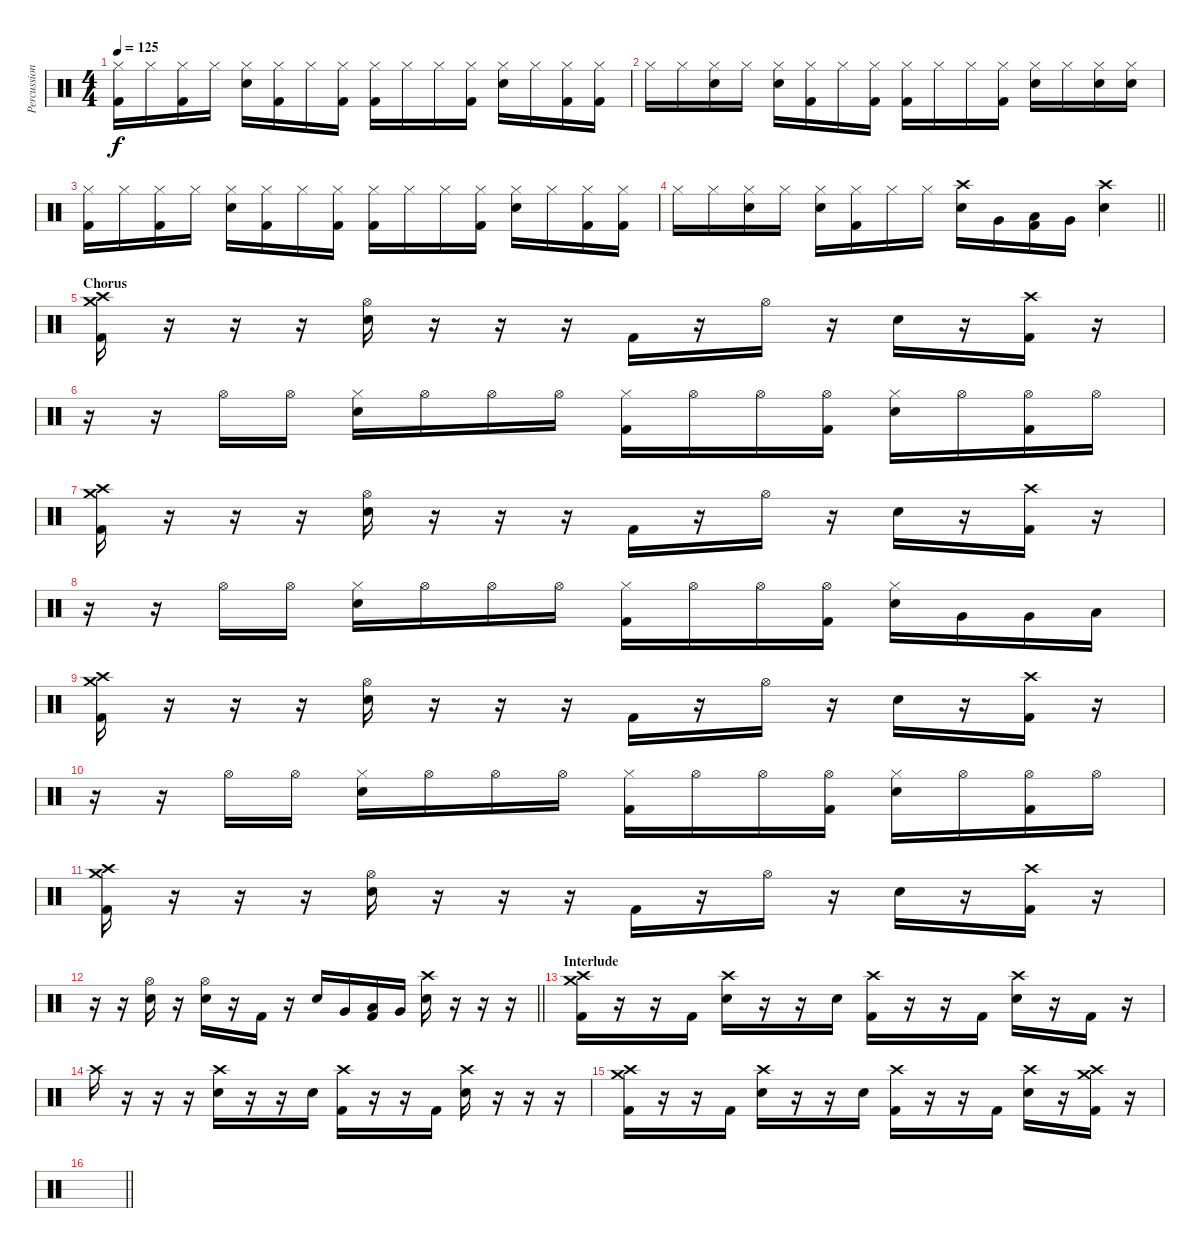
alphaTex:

\track ("Percussion" "Percussion") {instrument percussion}
\staff {score}
\articulation defaults
\ts (4 4)
\tempo 125
\clef neutral
\ks c
("Hi-Hat (closed)" "Kick (hit) 2").16{dy f} "Hi-Hat (closed)".16 ("Hi-Hat (closed)" "Kick (hit) 2").16 "Hi-Hat (closed)".16 ("Hi-Hat (closed)" "Electric Snare (hit)").16 ("Hi-Hat (closed)" "Kick (hit) 2").16 "Hi-Hat (closed)".16 ("Hi-Hat (closed)" "Kick (hit) 2").16 ("Hi-Hat (closed)" "Kick (hit) 2").16 "Hi-Hat (closed)".16 "Hi-Hat (closed)".16 ("Hi-Hat (closed)" "Kick (hit) 2").16 ("Hi-Hat (closed)" "Electric Snare (hit)").16 "Hi-Hat (closed)".16 ("Hi-Hat (closed)" "Kick (hit) 2").16 ("Hi-Hat (closed)" "Kick (hit) 2").16 |
"Hi-Hat (closed)".16 "Hi-Hat (closed)".16 ("Hi-Hat (closed)" "Electric Snare (hit)").16 "Hi-Hat (closed)".16 ("Hi-Hat (closed)" "Electric Snare (hit)").16 ("Hi-Hat (closed)" "Kick (hit) 2").16 "Hi-Hat (closed)".16 ("Hi-Hat (closed)" "Kick (hit) 2").16 ("Hi-Hat (closed)" "Kick (hit) 2").16 "Hi-Hat (closed)".16 "Hi-Hat (closed)".16 ("Hi-Hat (closed)" "Kick (hit) 2").16 ("Hi-Hat (closed)" "Electric Snare (hit)").16 "Hi-Hat (closed)".16 ("Hi-Hat (closed)" "Electric Snare (hit)").16 ("Hi-Hat (closed)" "Electric Snare (hit)").16 |
("Hi-Hat (closed)" "Kick (hit) 2").16 "Hi-Hat (closed)".16 ("Hi-Hat (closed)" "Kick (hit) 2").16 "Hi-Hat (closed)".16 ("Hi-Hat (closed)" "Electric Snare (hit)").16 ("Hi-Hat (closed)" "Kick (hit) 2").16 "Hi-Hat (closed)".16 ("Hi-Hat (closed)" "Kick (hit) 2").16 ("Hi-Hat (closed)" "Kick (hit) 2").16 "Hi-Hat (closed)".16 "Hi-Hat (closed)".16 ("Hi-Hat (closed)" "Kick (hit) 2").16 ("Hi-Hat (closed)" "Electric Snare (hit)").16 "Hi-Hat (closed)".16 ("Hi-Hat (closed)" "Kick (hit) 2").16 ("Hi-Hat (closed)" "Kick (hit) 2").16 |
\barLineRight lightlight "Hi-Hat (closed)".16 "Hi-Hat (closed)".16
("Hi-Hat (closed)" "Electric Snare (hit)").16 "Hi-Hat (closed)".16 ("Hi-Hat (closed)" "Electric Snare (hit)").16 ("Hi-Hat (closed)" "Kick (hit) 2").16 "Hi-Hat (closed)".16 "Hi-Hat (closed)".16 ("Crash high (hit)" "Electric Snare (hit)").16 "Very Low Tom (hit)".16 ("Low Floor Tom (hit)" "Kick (hit) 2").16 "Very Low Tom (hit)".16 ("Crash high (hit)" "Electric Snare (hit)").4 |
\section ("" "Chorus")
("Crash medium (hit)" "Crash high (hit)" "Kick (hit) 2").16 r.16 r.16 r.16 ("Hi-Hat (open)" "Electric Snare (hit)").16 r.16 r.16 r.16 "Kick (hit) 2".16 r.16 "Hi-Hat (open)".16 r.16 "Electric Snare (hit)".16 r.16 ("Crash high (hit)" "Kick (hit) 2").16 r.16 |
r.16 r.16 "Hi-Hat (open)".16 "Hi-Hat (open)".16 ("Hi-Hat (closed)" "Electric Snare (hit)").16 "Hi-Hat (open)".16 "Hi-Hat (open)".16 "Hi-Hat (open)".16 ("Hi-Hat (closed)" "Kick (hit) 2").16 "Hi-Hat (open)".16 "Hi-Hat (open)".16 ("Hi-Hat (open)" "Kick (hit) 2").16 ("Hi-Hat (closed)" "Electric Snare (hit)").16 "Hi-Hat (open)".16 ("Hi-Hat (open)" "Kick (hit) 2").16 "Hi-Hat (open)".16 |
("Crash medium (hit)" "Crash high (hit)" "Kick (hit) 2").16 r.16 r.16 r.16 ("Hi-Hat (open)" "Electric Snare (hit)").16 r.16 r.16 r.16 "Kick (hit) 2".16 r.16 "Hi-Hat (open)".16 r.16 "Electric Snare (hit)".16 r.16 ("Crash high (hit)" "Kick (hit) 2").16 r.16 |
r.16 r.16 "Hi-Hat (open)".16 "Hi-Hat (open)".16 ("Hi-Hat (closed)" "Electric Snare (hit)").16 "Hi-Hat (open)".16 "Hi-Hat (open)".16 "Hi-Hat (open)".16 ("Hi-Hat (closed)" "Kick (hit) 2").16 "Hi-Hat (open)".16 "Hi-Hat (open)".16 ("Hi-Hat (open)" "Kick (hit) 2").16 ("Hi-Hat (closed)" "Electric Snare (hit)").16 "Very Low Tom (hit)".16 "Very Low Tom (hit)".16 "Low Floor Tom (hit)".16 |
("Crash medium (hit)" "Crash high (hit)" "Kick (hit) 2").16 r.16 r.16 r.16 ("Hi-Hat (open)" "Electric Snare (hit)").16 r.16 r.16 r.16 "Kick (hit) 2".16 r.16 "Hi-Hat (open)".16 r.16 "Electric Snare (hit)".16 r.16 ("Crash high (hit)" "Kick (hit) 2").16 r.16 |
r.16 r.16 "Hi-Hat (open)".16 "Hi-Hat (open)".16 ("Hi-Hat (closed)" "Electric Snare (hit)").16 "Hi-Hat (open)".16 "Hi-Hat (open)".16 "Hi-Hat (open)".16 ("Hi-Hat (closed)" "Kick (hit) 2").16 "Hi-Hat (open)".16 "Hi-Hat (open)".16 ("Hi-Hat (open)" "Kick (hit) 2").16 ("Hi-Hat (closed)" "Electric Snare (hit)").16 "Hi-Hat (open)".16 ("Hi-Hat (open)" "Kick (hit) 2").16 "Hi-Hat (open)".16 |
("Crash medium (hit)" "Crash high (hit)" "Kick (hit) 2").16 r.16 r.16 r.16 ("Hi-Hat (open)" "Electric Snare (hit)").16 r.16 r.16 r.16 "Kick (hit) 2".16 r.16 "Hi-Hat (open)".16 r.16 "Electric Snare (hit)".16 r.16 ("Crash high (hit)" "Kick (hit) 2").16 r.16 |
\barLineRight lightlight
r.16 r.16 ("Hi-Hat (open)" "Electric Snare (hit)").16 r.16 ("Hi-Hat (open)" "Electric Snare (hit)").16 r.16 "Kick (hit) 2".16 r.16 "Electric Snare (hit)".16 "Very Low Tom (hit)".16 ("Low Floor Tom (hit)" "Kick (hit) 2").16 "Very Low Tom (hit)".16 ("Crash high (hit)" "Electric Snare (hit)").16 r.16 r.16 r.16 |
\section ("" "Interlude")
("Crash medium (hit)" "Crash high (hit)" "Kick (hit) 2").16 r.16 r.16 "Kick (hit) 2".16 ("Crash high (hit)" "Electric Snare (hit)").16 r.16 r.16 "Electric Snare (hit)".16 ("Crash high (hit)" "Kick (hit) 2").16 r.16 r.16 "Kick (hit) 2".16 ("Crash high (hit)" "Electric Snare (hit)").16 r.16 "Kick (hit) 2".16 r.16 |
"Crash high (hit)".16 r.16 r.16 r.16 ("Crash high (hit)" "Electric Snare (hit)").16 r.16 r.16 "Electric Snare (hit)".16 ("Crash high (hit)" "Kick (hit) 2").16 r.16 r.16 "Kick (hit) 2".16 ("Crash high (hit)" "Electric Snare (hit)").16 r.16 r.16 r.16 |
("Crash medium (hit)" "Crash high (hit)" "Kick (hit) 2").16 r.16 r.16 "Kick (hit) 2".16 ("Crash high (hit)" "Electric Snare (hit)").16 r.16 r.16 "Electric Snare (hit)".16 ("Crash high (hit)" "Kick (hit) 2").16 r.16 r.16 "Kick (hit) 2".16 ("Crash high (hit)" "Electric Snare (hit)").16 r.16 ("Crash medium (hit)" "Crash high (hit)" "Kick (hit) 2").16 r.16 |
\barLineRight lightlight
